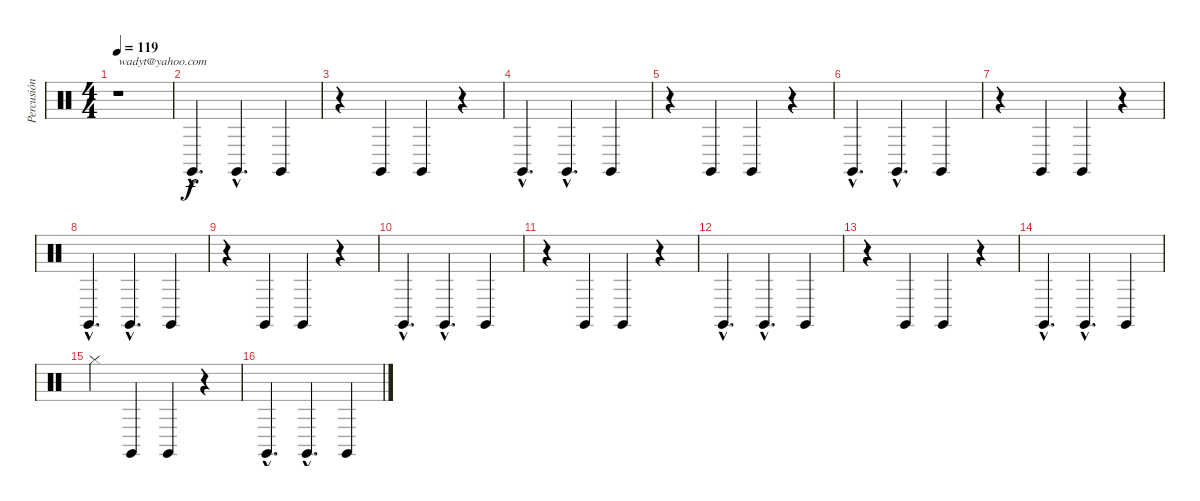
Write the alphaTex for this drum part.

\track ("Percusión" "Percusión") {instrument percussion}
\staff {score}
\articulation defaults
\ts (4 4)
\tempo 119
\clef neutral
\ks c
r.1{txt "wadyt@yahoo.com" dy f} |
"Claves (hit)"{hac}.4{d} "Claves (hit)"{hac}.4{d} "Claves (hit)".4 |
r.4 "Claves (hit)".4 "Claves (hit)".4 r.4 |
"Claves (hit)"{hac}.4{d} "Claves (hit)"{hac}.4{d} "Claves (hit)".4 |
r.4 "Claves (hit)".4 "Claves (hit)".4 r.4 |
"Claves (hit)"{hac}.4{d} "Claves (hit)"{hac}.4{d} "Claves (hit)".4 |
r.4 "Claves (hit)".4 "Claves (hit)".4 r.4 |
"Claves (hit)"{hac}.4{d} "Claves (hit)"{hac}.4{d} "Claves (hit)".4 |
r.4 "Claves (hit)".4 "Claves (hit)".4 r.4 |
"Claves (hit)"{hac}.4{d} "Claves (hit)"{hac}.4{d} "Claves (hit)".4 |
r.4 "Claves (hit)".4 "Claves (hit)".4 r.4 |
"Claves (hit)"{hac}.4{d} "Claves (hit)"{hac}.4{d} "Claves (hit)".4 |
r.4 "Claves (hit)".4 "Claves (hit)".4 r.4 |
"Claves (hit)"{hac}.4{d} "Claves (hit)"{hac}.4{d} "Claves (hit)".4 |
"Hi-Hat (closed)".4 "Claves (hit)".4 "Claves (hit)".4 r.4 |
"Claves (hit)"{hac}.4{d} "Claves (hit)"{hac}.4{d} "Claves (hit)".4
